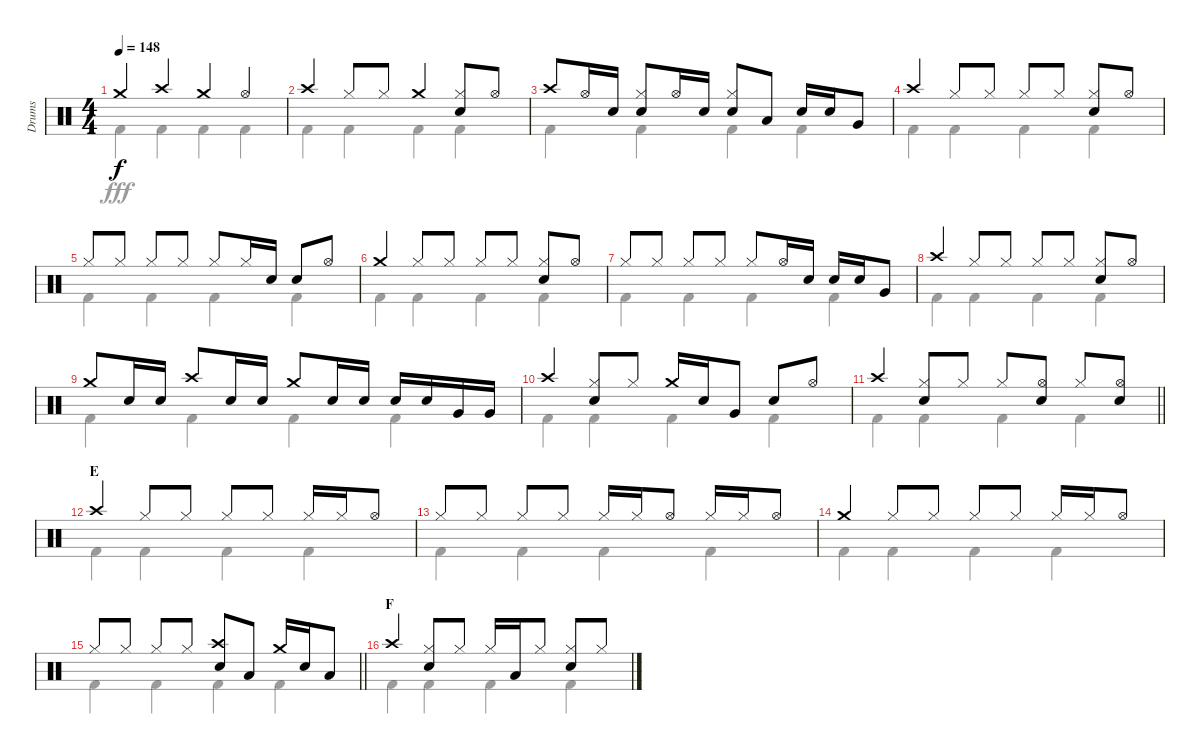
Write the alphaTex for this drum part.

\track ("Drums" "Drums") {instrument percussion}
\staff {score}
\articulation defaults
\voice
\ts (4 4)
\tempo 148
\clef neutral
\ks c "Crash medium (hit)".4{dy f} "Crash high (hit)".4 "Crash medium (hit)".4 "Hi-Hat (open)".4
|
"Crash high (hit)".4 "Hi-Hat (closed)".8 "Hi-Hat (closed)".8 "Crash medium (hit)".4 ("Hi-Hat (closed)" "Snare (hit) 2").8 "Hi-Hat (open)".8 |
"Crash high (hit)".8 "Hi-Hat (open)".16 "Snare (hit) 2".16 ("Hi-Hat (closed)" "Snare (hit) 2").8 "Hi-Hat (open)".16 "Snare (hit) 2".16 ("Hi-Hat (closed)" "Snare (hit) 2").8 "Low Tom (hit)".8 "Snare (hit) 2".16 "Snare (hit) 2".16 "Very Low Tom (hit)".8 |
"Crash high (hit)".4 "Hi-Hat (closed)".8 "Hi-Hat (closed)".8 "Hi-Hat (closed)".8 "Hi-Hat (closed)".8 ("Hi-Hat (closed)" "Snare (hit) 2").8 "Hi-Hat (open)".8 |
"Hi-Hat (closed)".8 "Hi-Hat (closed)".8 "Hi-Hat (closed)".8 "Hi-Hat (closed)".8 "Hi-Hat (closed)".8 "Hi-Hat (closed)".16 "Snare (hit) 2".16 "Snare (hit) 2".8 "Hi-Hat (open)".8 |
"Crash medium (hit)".4 "Hi-Hat (closed)".8 "Hi-Hat (closed)".8 "Hi-Hat (closed)".8 "Hi-Hat (closed)".8 ("Hi-Hat (closed)" "Snare (hit) 2").8 "Hi-Hat (open)".8 |
"Hi-Hat (closed)".8 "Hi-Hat (closed)".8 "Hi-Hat (closed)".8 "Hi-Hat (closed)".8 "Hi-Hat (closed)".8 "Hi-Hat (open)".16 "Snare (hit) 2".16 "Snare (hit) 2".16 "Snare (hit) 2".16 "Very Low Tom (hit)".8 |
"Crash high (hit)".4 "Hi-Hat (closed)".8 "Hi-Hat (closed)".8 "Hi-Hat (closed)".8 "Hi-Hat (closed)".8 ("Hi-Hat (closed)" "Snare (hit) 2").8 "Hi-Hat (open)".8 |
"Crash medium (hit)".8 "Snare (hit) 2".16 "Snare (hit) 2".16 "Crash high (hit)".8 "Snare (hit) 2".16 "Snare (hit) 2".16 "Crash medium (hit)".8 "Snare (hit) 2".16 "Snare (hit) 2".16 "Snare (hit) 2".16 "Snare (hit) 2".16 "Very Low Tom (hit)".16 "Very Low Tom (hit)".16 |
"Crash high (hit)".4 ("Hi-Hat (closed)" "Snare (hit) 2").8 "Hi-Hat (closed)".8 "Crash medium (hit)".16 "Snare (hit) 2".16 "Very Low Tom (hit)".8 "Snare (hit) 2".8 "Hi-Hat (open)".8 |
\barLineRight lightlight "Crash high (hit)".4
("Hi-Hat (closed)" "Snare (hit) 2").8 "Hi-Hat (closed)".8 "Hi-Hat (closed)".8 ("Hi-Hat (open)" "Snare (hit) 2").8 "Hi-Hat (closed)".8 ("Hi-Hat (open)" "Snare (hit) 2").8 |
\section ("" "E")
"Crash high (hit)".4 "Hi-Hat (closed)".8 "Hi-Hat (closed)".8 "Hi-Hat (closed)".8 "Hi-Hat (closed)".8 "Hi-Hat (closed)".16 "Hi-Hat (closed)".16 "Hi-Hat (open)".8 |
"Hi-Hat (closed)".8 "Hi-Hat (closed)".8 "Hi-Hat (closed)".8 "Hi-Hat (closed)".8 "Hi-Hat (closed)".16 "Hi-Hat (closed)".16 "Hi-Hat (open)".8 "Hi-Hat (closed)".16 "Hi-Hat (closed)".16 "Hi-Hat (open)".8 |
"Crash medium (hit)".4 "Hi-Hat (closed)".8 "Hi-Hat (closed)".8 "Hi-Hat (closed)".8 "Hi-Hat (closed)".8 "Hi-Hat (closed)".16 "Hi-Hat (closed)".16 "Hi-Hat (open)".8 |
\barLineRight lightlight "Hi-Hat (closed)".8 "Hi-Hat (closed)".8 "Hi-Hat (closed)".8 "Hi-Hat (closed)".8
("Crash high (hit)" "Snare (hit) 2").8 "Low Tom (hit)".8 "Crash medium (hit)".16 "Snare (hit) 2".16 "Low Tom (hit)".8 |
\section ("" "F")
"Crash high (hit)".4 ("Hi-Hat (closed)" "Snare (hit) 2").8 "Hi-Hat (closed)".8 "Hi-Hat (closed)".16 "Low Tom (hit)".16 "Hi-Hat (closed)".8 ("Hi-Hat (closed)" "Snare (hit) 2").8 "Hi-Hat (closed)".8
\voice
\clef neutral
\ottava regular
\simile none
\ks c "Kick (hit) 2".4{dy fff} "Kick (hit) 2".4 "Kick (hit) 2".4 "Kick (hit) 2".4
|
"Kick (hit) 2".4 "Kick (hit) 2".4 "Kick (hit) 2".4 "Kick (hit) 2".4 |
"Kick (hit) 2".4 "Kick (hit) 2".4 "Kick (hit) 2".4 "Kick (hit) 2".4 |
"Kick (hit) 2".4 "Kick (hit) 2".4 "Kick (hit) 2".4 "Kick (hit) 2".4 |
"Kick (hit) 2".4 "Kick (hit) 2".4 "Kick (hit) 2".4 "Kick (hit) 2".4 |
"Kick (hit) 2".4 "Kick (hit) 2".4 "Kick (hit) 2".4 "Kick (hit) 2".4 |
"Kick (hit) 2".4 "Kick (hit) 2".4 "Kick (hit) 2".4 "Kick (hit) 2".4 |
"Kick (hit) 2".4 "Kick (hit) 2".4 "Kick (hit) 2".4 "Kick (hit) 2".4 |
"Kick (hit) 2".4 "Kick (hit) 2".4 "Kick (hit) 2".4 "Kick (hit) 2".4 |
"Kick (hit) 2".4 "Kick (hit) 2".4 "Kick (hit) 2".4 "Kick (hit) 2".4 |
\barLineRight lightlight "Kick (hit) 2".4 "Kick (hit) 2".4 "Kick (hit) 2".4 "Kick (hit) 2".4
|
"Kick (hit) 2".4 "Kick (hit) 2".4 "Kick (hit) 2".4 "Kick (hit) 2".4 |
"Kick (hit) 2".4 "Kick (hit) 2".4 "Kick (hit) 2".4 "Kick (hit) 2".4 |
"Kick (hit) 2".4 "Kick (hit) 2".4 "Kick (hit) 2".4 "Kick (hit) 2".4 |
\barLineRight lightlight "Kick (hit) 2".4 "Kick (hit) 2".4 "Kick (hit) 2".4 "Kick (hit) 2".4
|
"Kick (hit) 2".4 "Kick (hit) 2".4 "Kick (hit) 2".4 "Kick (hit) 2".4
